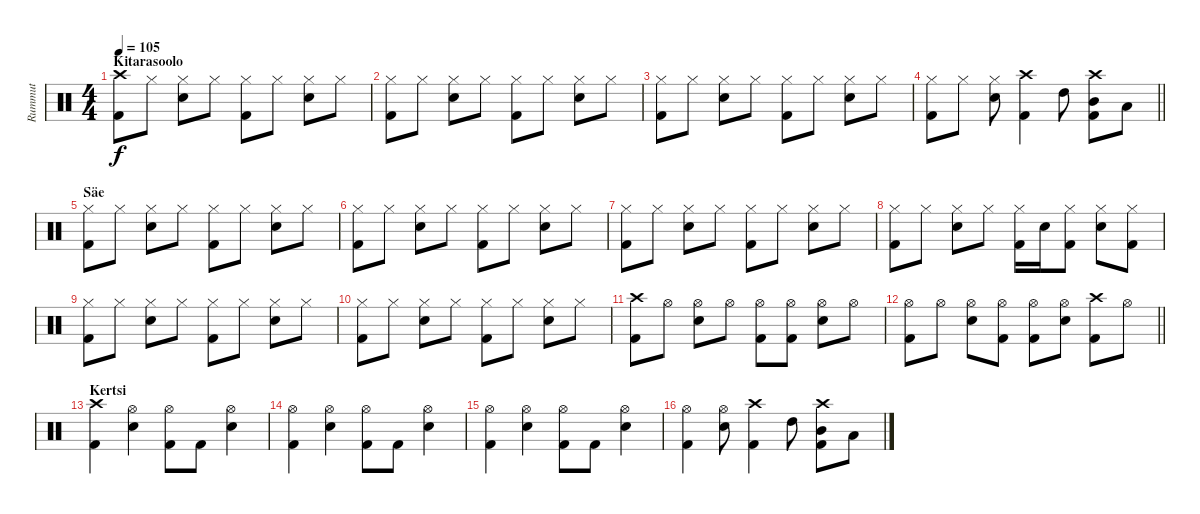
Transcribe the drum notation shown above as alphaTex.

\track ("Rummut" "Rummut") {instrument percussion}
\staff {score}
\articulation defaults
\ts (4 4)
\section ("" "Kitarasoolo")
\tempo 105
\clef neutral
\ks c
("Crash high (hit)" "Kick (hit) 2").8{dy f} "Hi-Hat (closed)".8 ("Hi-Hat (closed)" "Snare (hit) 2").8 "Hi-Hat (closed)".8 ("Hi-Hat (closed)" "Kick (hit) 2").8 "Hi-Hat (closed)".8 ("Hi-Hat (closed)" "Snare (hit) 2").8 "Hi-Hat (closed)".8 |
("Hi-Hat (closed)" "Kick (hit) 2").8 "Hi-Hat (closed)".8 ("Hi-Hat (closed)" "Snare (hit) 2").8 "Hi-Hat (closed)".8 ("Hi-Hat (closed)" "Kick (hit) 2").8 "Hi-Hat (closed)".8 ("Hi-Hat (closed)" "Snare (hit) 2").8 "Hi-Hat (closed)".8 |
("Hi-Hat (closed)" "Kick (hit) 2").8 "Hi-Hat (closed)".8 ("Hi-Hat (closed)" "Snare (hit) 2").8 "Hi-Hat (closed)".8 ("Hi-Hat (closed)" "Kick (hit) 2").8 "Hi-Hat (closed)".8 ("Hi-Hat (closed)" "Snare (hit) 2").8 "Hi-Hat (closed)".8 |
\barLineRight lightlight
("Hi-Hat (closed)" "Kick (hit) 2").8 "Hi-Hat (closed)".8 ("Hi-Hat (closed)" "Snare (hit) 2").8 ("Crash high (hit)" "Kick (hit) 2").4 "High Tom (hit)".8 ("Crash high (hit)" "Mid Tom (hit)" "Kick (hit) 2").8 "Low Tom (hit)".8 |
\section ("" "Säe")
("Hi-Hat (closed)" "Kick (hit) 2").8 "Hi-Hat (closed)".8 ("Hi-Hat (closed)" "Snare (hit) 2").8 "Hi-Hat (closed)".8 ("Hi-Hat (closed)" "Kick (hit) 2").8 "Hi-Hat (closed)".8 ("Hi-Hat (closed)" "Snare (hit) 2").8 "Hi-Hat (closed)".8 |
("Hi-Hat (closed)" "Kick (hit) 2").8 "Hi-Hat (closed)".8 ("Hi-Hat (closed)" "Snare (hit) 2").8 "Hi-Hat (closed)".8 ("Hi-Hat (closed)" "Kick (hit) 2").8 "Hi-Hat (closed)".8 ("Hi-Hat (closed)" "Snare (hit) 2").8 "Hi-Hat (closed)".8 |
("Hi-Hat (closed)" "Kick (hit) 2").8 "Hi-Hat (closed)".8 ("Hi-Hat (closed)" "Snare (hit) 2").8 "Hi-Hat (closed)".8 ("Hi-Hat (closed)" "Kick (hit) 2").8 "Hi-Hat (closed)".8 ("Hi-Hat (closed)" "Snare (hit) 2").8 "Hi-Hat (closed)".8 |
("Hi-Hat (closed)" "Kick (hit) 2").8 "Hi-Hat (closed)".8 ("Hi-Hat (closed)" "Snare (hit) 2").8 "Hi-Hat (closed)".8 ("Hi-Hat (closed)" "Kick (hit) 2").16 "Snare (hit) 2".16 ("Hi-Hat (closed)" "Kick (hit) 2").8 ("Hi-Hat (closed)" "Snare (hit) 2").8 ("Hi-Hat (closed)" "Kick (hit) 2").8 |
("Hi-Hat (closed)" "Kick (hit) 2").8 "Hi-Hat (closed)".8 ("Hi-Hat (closed)" "Snare (hit) 2").8 "Hi-Hat (closed)".8 ("Hi-Hat (closed)" "Kick (hit) 2").8 "Hi-Hat (closed)".8 ("Hi-Hat (closed)" "Snare (hit) 2").8 "Hi-Hat (closed)".8 |
("Hi-Hat (closed)" "Kick (hit) 2").8 "Hi-Hat (closed)".8 ("Hi-Hat (closed)" "Snare (hit) 2").8 "Hi-Hat (closed)".8 ("Hi-Hat (closed)" "Kick (hit) 2").8 "Hi-Hat (closed)".8 ("Hi-Hat (closed)" "Snare (hit) 2").8 "Hi-Hat (closed)".8 |
("Crash high (hit)" "Kick (hit) 2").8 "Hi-Hat (open)".8 ("Hi-Hat (open)" "Snare (hit) 2").8 "Hi-Hat (open)".8 ("Hi-Hat (open)" "Kick (hit) 2").8 ("Hi-Hat (open)" "Kick (hit) 2").8 ("Hi-Hat (open)" "Snare (hit) 2").8 "Hi-Hat (open)".8 |
\barLineRight lightlight
("Hi-Hat (open)" "Kick (hit) 2").8 "Hi-Hat (open)".8 ("Hi-Hat (open)" "Snare (hit) 2").8 ("Hi-Hat (open)" "Kick (hit) 2").8 ("Hi-Hat (open)" "Kick (hit) 2").8 ("Hi-Hat (open)" "Snare (hit) 2").8 ("Crash high (hit)" "Kick (hit) 2").8 "Hi-Hat (open)".8 |
\section ("" "Kertsi")
("Crash high (hit)" "Kick (hit) 2").4 ("Hi-Hat (open)" "Snare (hit) 2").4 ("Hi-Hat (open)" "Kick (hit) 2").8 "Kick (hit) 2".8 ("Hi-Hat (open)" "Snare (hit) 2").4 |
("Hi-Hat (open)" "Kick (hit) 2").4 ("Hi-Hat (open)" "Snare (hit) 2").4 ("Hi-Hat (open)" "Kick (hit) 2").8 "Kick (hit) 2".8 ("Hi-Hat (open)" "Snare (hit) 2").4 |
("Hi-Hat (open)" "Kick (hit) 2").4 ("Hi-Hat (open)" "Snare (hit) 2").4 ("Hi-Hat (open)" "Kick (hit) 2").8 "Kick (hit) 2".8 ("Hi-Hat (open)" "Snare (hit) 2").4 |
("Hi-Hat (open)" "Kick (hit) 2").4 ("Hi-Hat (open)" "Snare (hit) 2").8 ("Crash high (hit)" "Kick (hit) 2").4 "High Tom (hit)".8 ("Crash high (hit)" "Mid Tom (hit)" "Kick (hit) 2").8 "Low Tom (hit)".8
